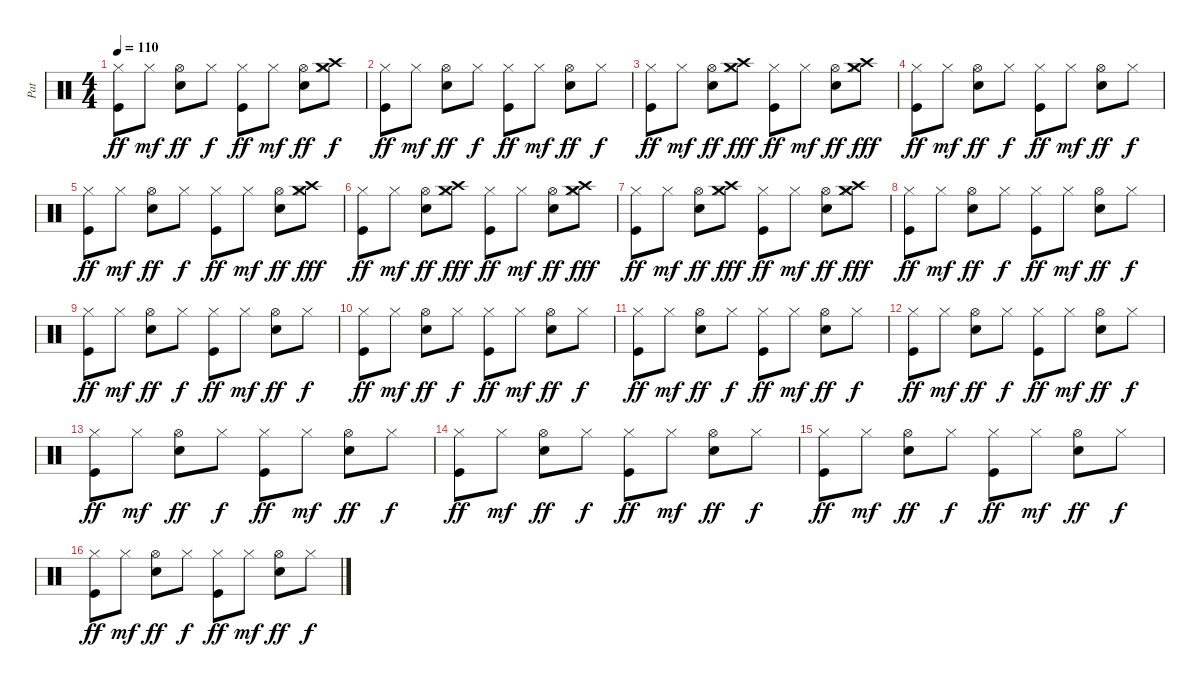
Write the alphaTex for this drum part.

\track ("Pat" "Pat") {instrument percussion}
\staff {score}
\articulation defaults
\ts (4 4)
\tempo 110
\clef neutral
\ks c
("Hi-Hat (closed)" "Kick (hit)").8{dy ff} "Hi-Hat (closed)".8{dy mf} ("Hi-Hat (open)" "Snare (hit) 2").8{dy ff} "Hi-Hat (closed)".8{dy f} ("Hi-Hat (closed)" "Kick (hit)").8{dy ff} "Hi-Hat (closed)".8{dy mf} ("Hi-Hat (open)" "Snare (hit) 2").8{dy ff} ("Hi-Hat (closed)" "Crash high (hit)" "Crash medium (hit)").8{dy f} |
("Hi-Hat (closed)" "Kick (hit)").8{dy ff} "Hi-Hat (closed)".8{dy mf} ("Hi-Hat (open)" "Snare (hit) 2").8{dy ff} "Hi-Hat (closed)".8{dy f} ("Hi-Hat (closed)" "Kick (hit)").8{dy ff} "Hi-Hat (closed)".8{dy mf} ("Hi-Hat (open)" "Snare (hit) 2").8{dy ff} "Hi-Hat (closed)".8{dy f} |
("Hi-Hat (closed)" "Kick (hit)").8{dy ff} "Hi-Hat (closed)".8{dy mf} ("Hi-Hat (open)" "Snare (hit) 2").8{dy ff} ("Hi-Hat (closed)" "Crash high (hit)" "Crash medium (hit)").8{dy fff} ("Hi-Hat (closed)" "Kick (hit)").8{dy ff} "Hi-Hat (closed)".8{dy mf} ("Hi-Hat (open)" "Snare (hit) 2").8{dy ff} ("Hi-Hat (closed)" "Crash high (hit)" "Crash medium (hit)").8{dy fff} |
("Hi-Hat (closed)" "Kick (hit)").8{dy ff} "Hi-Hat (closed)".8{dy mf} ("Hi-Hat (open)" "Snare (hit) 2").8{dy ff} "Hi-Hat (closed)".8{dy f} ("Hi-Hat (closed)" "Kick (hit)").8{dy ff} "Hi-Hat (closed)".8{dy mf} ("Hi-Hat (open)" "Snare (hit) 2").8{dy ff} "Hi-Hat (closed)".8{dy f} |
("Hi-Hat (closed)" "Kick (hit)").8{dy ff} "Hi-Hat (closed)".8{dy mf} ("Hi-Hat (open)" "Snare (hit) 2").8{dy ff} "Hi-Hat (closed)".8{dy f} ("Hi-Hat (closed)" "Kick (hit)").8{dy ff} "Hi-Hat (closed)".8{dy mf} ("Hi-Hat (open)" "Snare (hit) 2").8{dy ff} ("Hi-Hat (closed)" "Crash high (hit)" "Crash medium (hit)").8{dy fff} |
("Hi-Hat (closed)" "Kick (hit)").8{dy ff} "Hi-Hat (closed)".8{dy mf} ("Hi-Hat (open)" "Snare (hit) 2").8{dy ff} ("Hi-Hat (closed)" "Crash high (hit)" "Crash medium (hit)").8{dy fff} ("Hi-Hat (closed)" "Kick (hit)").8{dy ff} "Hi-Hat (closed)".8{dy mf} ("Hi-Hat (open)" "Snare (hit) 2").8{dy ff} ("Hi-Hat (closed)" "Crash high (hit)" "Crash medium (hit)").8{dy fff} |
("Hi-Hat (closed)" "Kick (hit)").8{dy ff} "Hi-Hat (closed)".8{dy mf} ("Hi-Hat (open)" "Snare (hit) 2").8{dy ff} ("Hi-Hat (closed)" "Crash high (hit)" "Crash medium (hit)").8{dy fff} ("Hi-Hat (closed)" "Kick (hit)").8{dy ff} "Hi-Hat (closed)".8{dy mf} ("Hi-Hat (open)" "Snare (hit) 2").8{dy ff} ("Hi-Hat (closed)" "Crash high (hit)" "Crash medium (hit)").8{dy fff} |
("Hi-Hat (closed)" "Kick (hit)").8{dy ff} "Hi-Hat (closed)".8{dy mf} ("Hi-Hat (open)" "Snare (hit) 2").8{dy ff} "Hi-Hat (closed)".8{dy f} ("Hi-Hat (closed)" "Kick (hit)").8{dy ff} "Hi-Hat (closed)".8{dy mf} ("Hi-Hat (open)" "Snare (hit) 2").8{dy ff} "Hi-Hat (closed)".8{dy f} |
("Hi-Hat (closed)" "Kick (hit)").8{dy ff} "Hi-Hat (closed)".8{dy mf} ("Hi-Hat (open)" "Snare (hit) 2").8{dy ff} "Hi-Hat (closed)".8{dy f} ("Hi-Hat (closed)" "Kick (hit)").8{dy ff} "Hi-Hat (closed)".8{dy mf} ("Hi-Hat (open)" "Snare (hit) 2").8{dy ff} "Hi-Hat (closed)".8{dy f} |
("Hi-Hat (closed)" "Kick (hit)").8{dy ff} "Hi-Hat (closed)".8{dy mf} ("Hi-Hat (open)" "Snare (hit) 2").8{dy ff} "Hi-Hat (closed)".8{dy f} ("Hi-Hat (closed)" "Kick (hit)").8{dy ff} "Hi-Hat (closed)".8{dy mf} ("Hi-Hat (open)" "Snare (hit) 2").8{dy ff} "Hi-Hat (closed)".8{dy f} |
("Hi-Hat (closed)" "Kick (hit)").8{dy ff} "Hi-Hat (closed)".8{dy mf} ("Hi-Hat (open)" "Snare (hit) 2").8{dy ff} "Hi-Hat (closed)".8{dy f} ("Hi-Hat (closed)" "Kick (hit)").8{dy ff} "Hi-Hat (closed)".8{dy mf} ("Hi-Hat (open)" "Snare (hit) 2").8{dy ff} "Hi-Hat (closed)".8{dy f} |
("Hi-Hat (closed)" "Kick (hit)").8{dy ff} "Hi-Hat (closed)".8{dy mf} ("Hi-Hat (open)" "Snare (hit) 2").8{dy ff} "Hi-Hat (closed)".8{dy f} ("Hi-Hat (closed)" "Kick (hit)").8{dy ff} "Hi-Hat (closed)".8{dy mf} ("Hi-Hat (open)" "Snare (hit) 2").8{dy ff} "Hi-Hat (closed)".8{dy f} |
("Hi-Hat (closed)" "Kick (hit)").8{dy ff} "Hi-Hat (closed)".8{dy mf} ("Hi-Hat (open)" "Snare (hit) 2").8{dy ff} "Hi-Hat (closed)".8{dy f} ("Hi-Hat (closed)" "Kick (hit)").8{dy ff} "Hi-Hat (closed)".8{dy mf} ("Hi-Hat (open)" "Snare (hit) 2").8{dy ff} "Hi-Hat (closed)".8{dy f} |
("Hi-Hat (closed)" "Kick (hit)").8{dy ff} "Hi-Hat (closed)".8{dy mf} ("Hi-Hat (open)" "Snare (hit) 2").8{dy ff} "Hi-Hat (closed)".8{dy f} ("Hi-Hat (closed)" "Kick (hit)").8{dy ff} "Hi-Hat (closed)".8{dy mf} ("Hi-Hat (open)" "Snare (hit) 2").8{dy ff} "Hi-Hat (closed)".8{dy f} |
("Hi-Hat (closed)" "Kick (hit)").8{dy ff} "Hi-Hat (closed)".8{dy mf} ("Hi-Hat (open)" "Snare (hit) 2").8{dy ff} "Hi-Hat (closed)".8{dy f} ("Hi-Hat (closed)" "Kick (hit)").8{dy ff} "Hi-Hat (closed)".8{dy mf} ("Hi-Hat (open)" "Snare (hit) 2").8{dy ff} "Hi-Hat (closed)".8{dy f} |
("Hi-Hat (closed)" "Kick (hit)").8{dy ff} "Hi-Hat (closed)".8{dy mf} ("Hi-Hat (open)" "Snare (hit) 2").8{dy ff} "Hi-Hat (closed)".8{dy f} ("Hi-Hat (closed)" "Kick (hit)").8{dy ff} "Hi-Hat (closed)".8{dy mf} ("Hi-Hat (open)" "Snare (hit) 2").8{dy ff} "Hi-Hat (closed)".8{dy f}
